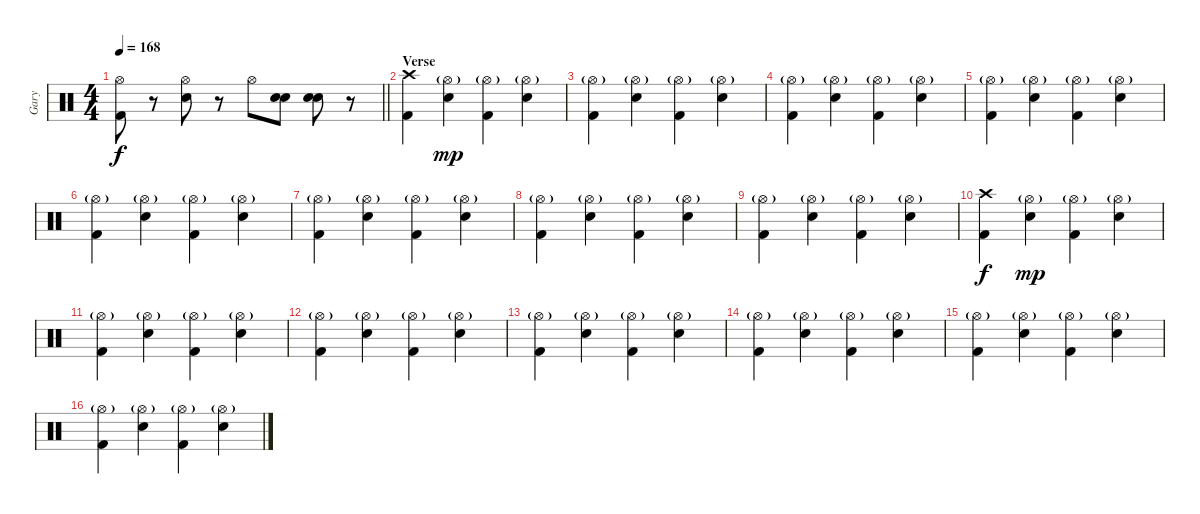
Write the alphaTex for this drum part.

\track ("Gary" "Gary") {instrument percussion}
\staff {score}
\articulation defaults
\ts (4 4)
\tempo 168
\clef neutral
\barLineRight lightlight
\ks c
("Hi-Hat (open)" "Kick (hit) 2").8{dy f} r.8 ("Hi-Hat (open)" "Electric Snare (hit)").8 r.8 "Hi-Hat (open)".8 ("Electric Snare (hit)" "Electric Snare (hit)").8 ("Electric Snare (hit)" "Electric Snare (hit)").8 r.8 |
\section ("" "Verse")
("Crash high (hit)" "Kick (hit) 2").4 ("Hi-Hat (open)"{g} "Electric Snare (hit)").4{dy mp} ("Hi-Hat (open)"{g} "Kick (hit) 2").4 ("Hi-Hat (open)"{g} "Electric Snare (hit)").4 |
("Hi-Hat (open)"{g} "Kick (hit) 2").4 ("Hi-Hat (open)"{g} "Electric Snare (hit)").4 ("Hi-Hat (open)"{g} "Kick (hit) 2").4 ("Hi-Hat (open)"{g} "Electric Snare (hit)").4 |
("Hi-Hat (open)"{g} "Kick (hit) 2").4 ("Hi-Hat (open)"{g} "Electric Snare (hit)").4 ("Hi-Hat (open)"{g} "Kick (hit) 2").4 ("Hi-Hat (open)"{g} "Electric Snare (hit)").4 |
("Hi-Hat (open)"{g} "Kick (hit) 2").4 ("Hi-Hat (open)"{g} "Electric Snare (hit)").4 ("Hi-Hat (open)"{g} "Kick (hit) 2").4 ("Hi-Hat (open)"{g} "Electric Snare (hit)").4 |
("Hi-Hat (open)"{g} "Kick (hit) 2").4 ("Hi-Hat (open)"{g} "Electric Snare (hit)").4 ("Hi-Hat (open)"{g} "Kick (hit) 2").4 ("Hi-Hat (open)"{g} "Electric Snare (hit)").4 |
("Hi-Hat (open)"{g} "Kick (hit) 2").4 ("Hi-Hat (open)"{g} "Electric Snare (hit)").4 ("Hi-Hat (open)"{g} "Kick (hit) 2").4 ("Hi-Hat (open)"{g} "Electric Snare (hit)").4 |
("Hi-Hat (open)"{g} "Kick (hit) 2").4 ("Hi-Hat (open)"{g} "Electric Snare (hit)").4 ("Hi-Hat (open)"{g} "Kick (hit) 2").4 ("Hi-Hat (open)"{g} "Electric Snare (hit)").4 |
("Hi-Hat (open)"{g} "Kick (hit) 2").4 ("Hi-Hat (open)"{g} "Electric Snare (hit)").4 ("Hi-Hat (open)"{g} "Kick (hit) 2").4 ("Hi-Hat (open)"{g} "Electric Snare (hit)").4 |
("Crash high (hit)" "Kick (hit) 2").4{dy f} ("Hi-Hat (open)"{g} "Electric Snare (hit)").4{dy mp} ("Hi-Hat (open)"{g} "Kick (hit) 2").4 ("Hi-Hat (open)"{g} "Electric Snare (hit)").4 |
("Hi-Hat (open)"{g} "Kick (hit) 2").4 ("Hi-Hat (open)"{g} "Electric Snare (hit)").4 ("Hi-Hat (open)"{g} "Kick (hit) 2").4 ("Hi-Hat (open)"{g} "Electric Snare (hit)").4 |
("Hi-Hat (open)"{g} "Kick (hit) 2").4 ("Hi-Hat (open)"{g} "Electric Snare (hit)").4 ("Hi-Hat (open)"{g} "Kick (hit) 2").4 ("Hi-Hat (open)"{g} "Electric Snare (hit)").4 |
("Hi-Hat (open)"{g} "Kick (hit) 2").4 ("Hi-Hat (open)"{g} "Electric Snare (hit)").4 ("Hi-Hat (open)"{g} "Kick (hit) 2").4 ("Hi-Hat (open)"{g} "Electric Snare (hit)").4 |
("Hi-Hat (open)"{g} "Kick (hit) 2").4 ("Hi-Hat (open)"{g} "Electric Snare (hit)").4 ("Hi-Hat (open)"{g} "Kick (hit) 2").4 ("Hi-Hat (open)"{g} "Electric Snare (hit)").4 |
("Hi-Hat (open)"{g} "Kick (hit) 2").4 ("Hi-Hat (open)"{g} "Electric Snare (hit)").4 ("Hi-Hat (open)"{g} "Kick (hit) 2").4 ("Hi-Hat (open)"{g} "Electric Snare (hit)").4 |
("Hi-Hat (open)"{g} "Kick (hit) 2").4 ("Hi-Hat (open)"{g} "Electric Snare (hit)").4 ("Hi-Hat (open)"{g} "Kick (hit) 2").4 ("Hi-Hat (open)"{g} "Electric Snare (hit)").4
